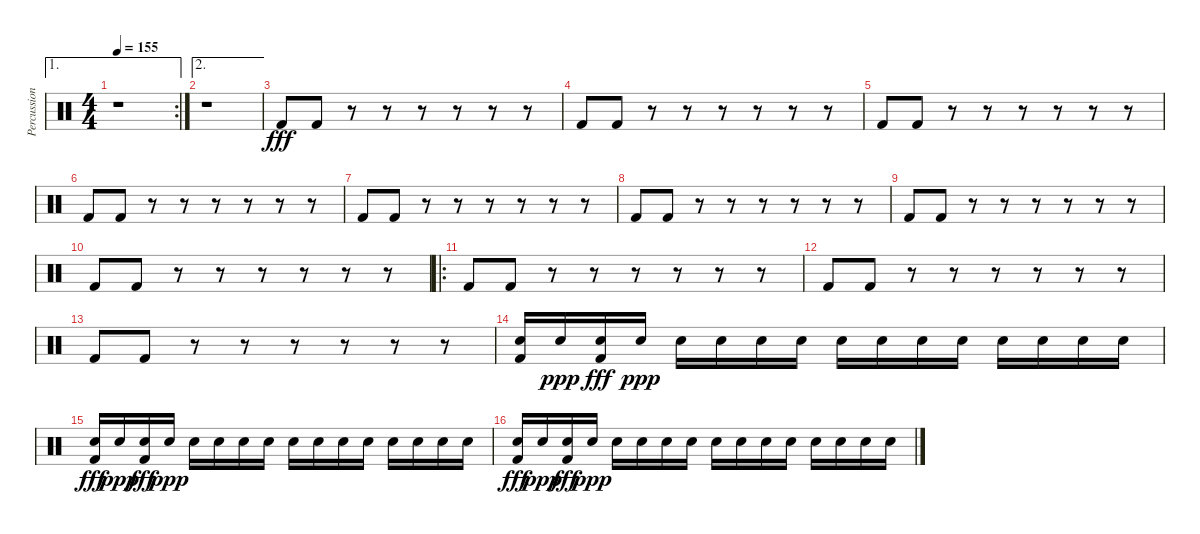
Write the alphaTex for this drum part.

\track ("Percussion" "Percussion") {instrument percussion}
\staff {score}
\articulation defaults
\ae 1
\rc 2
\ts (4 4)
\tempo 155
\clef neutral
\ks c
r.1{dy fff} |
\ae 2
r.1 |
"Kick (hit) 2".8 "Kick (hit) 2".8 r.8 r.8 r.8 r.8 r.8 r.8 |
"Kick (hit) 2".8 "Kick (hit) 2".8 r.8 r.8 r.8 r.8 r.8 r.8 |
"Kick (hit) 2".8 "Kick (hit) 2".8 r.8 r.8 r.8 r.8 r.8 r.8 |
"Kick (hit) 2".8 "Kick (hit) 2".8 r.8 r.8 r.8 r.8 r.8 r.8 |
"Kick (hit) 2".8 "Kick (hit) 2".8 r.8 r.8 r.8 r.8 r.8 r.8 |
"Kick (hit) 2".8 "Kick (hit) 2".8 r.8 r.8 r.8 r.8 r.8 r.8 |
"Kick (hit) 2".8 "Kick (hit) 2".8 r.8 r.8 r.8 r.8 r.8 r.8 |
"Kick (hit) 2".8 "Kick (hit) 2".8 r.8 r.8 r.8 r.8 r.8 r.8 |
\ro "Kick (hit) 2".8 "Kick (hit) 2".8
r.8 r.8 r.8 r.8 r.8 r.8 |
"Kick (hit) 2".8 "Kick (hit) 2".8 r.8 r.8 r.8 r.8 r.8 r.8 |
"Kick (hit) 2".8 "Kick (hit) 2".8 r.8 r.8 r.8 r.8 r.8 r.8 |
("Snare (hit) 2" "Kick (hit) 2").16 "Snare (hit) 2".16{dy ppp} ("Snare (hit) 2" "Kick (hit) 2").16{dy fff} "Snare (hit) 2".16{dy ppp} "Snare (hit) 2".16 "Snare (hit) 2".16 "Snare (hit) 2".16 "Snare (hit) 2".16 "Snare (hit) 2".16 "Snare (hit) 2".16 "Snare (hit) 2".16 "Snare (hit) 2".16 "Snare (hit) 2".16 "Snare (hit) 2".16 "Snare (hit) 2".16 "Snare (hit) 2".16 |
("Snare (hit) 2" "Kick (hit) 2").16{dy fff} "Snare (hit) 2".16{dy ppp} ("Snare (hit) 2" "Kick (hit) 2").16{dy fff} "Snare (hit) 2".16{dy ppp} "Snare (hit) 2".16 "Snare (hit) 2".16 "Snare (hit) 2".16 "Snare (hit) 2".16 "Snare (hit) 2".16 "Snare (hit) 2".16 "Snare (hit) 2".16 "Snare (hit) 2".16 "Snare (hit) 2".16 "Snare (hit) 2".16 "Snare (hit) 2".16 "Snare (hit) 2".16 |
("Snare (hit) 2" "Kick (hit) 2").16{dy fff} "Snare (hit) 2".16{dy ppp} ("Snare (hit) 2" "Kick (hit) 2").16{dy fff} "Snare (hit) 2".16{dy ppp} "Snare (hit) 2".16 "Snare (hit) 2".16 "Snare (hit) 2".16 "Snare (hit) 2".16 "Snare (hit) 2".16 "Snare (hit) 2".16 "Snare (hit) 2".16 "Snare (hit) 2".16 "Snare (hit) 2".16 "Snare (hit) 2".16 "Snare (hit) 2".16 "Snare (hit) 2".16
